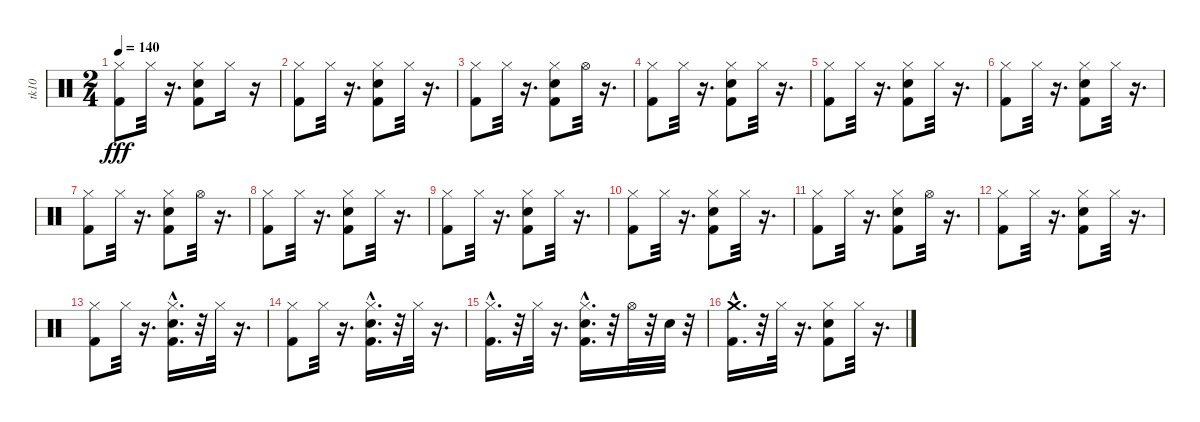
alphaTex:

\track ("tk10" "tk10") {instrument percussion}
\staff {score}
\articulation defaults
\ts (2 4)
\tempo 140
\clef neutral
\ks c
("Kick (hit) 2" "Hi-Hat (closed)").8{dy fff} "Hi-Hat (closed)".32 r.16{d} ("Hi-Hat (closed)" "Snare (hit) 2" "Kick (hit) 2").8 "Hi-Hat (closed)".16 r.16 |
("Kick (hit) 2" "Hi-Hat (closed)").8 "Hi-Hat (closed)".32 r.16{d} ("Snare (hit) 2" "Kick (hit) 2" "Hi-Hat (closed)").8 "Hi-Hat (closed)".32 r.16{d} |
("Kick (hit) 2" "Hi-Hat (closed)").8 "Hi-Hat (closed)".32 r.16{d} ("Kick (hit) 2" "Snare (hit) 2" "Hi-Hat (closed)").8 "Hi-Hat (open)".32 r.16{d} |
("Kick (hit) 2" "Hi-Hat (closed)").8 "Hi-Hat (closed)".32 r.16{d} ("Snare (hit) 2" "Kick (hit) 2" "Hi-Hat (closed)").8 "Hi-Hat (closed)".32 r.16{d} |
("Kick (hit) 2" "Hi-Hat (closed)").8 "Hi-Hat (closed)".32 r.16{d} ("Snare (hit) 2" "Kick (hit) 2" "Hi-Hat (closed)").8 "Hi-Hat (closed)".32 r.16{d} |
("Kick (hit) 2" "Hi-Hat (closed)").8 "Hi-Hat (closed)".32 r.16{d} ("Snare (hit) 2" "Kick (hit) 2" "Hi-Hat (closed)").8 "Hi-Hat (closed)".32 r.16{d} |
("Kick (hit) 2" "Hi-Hat (closed)").8 "Hi-Hat (closed)".32 r.16{d} ("Snare (hit) 2" "Kick (hit) 2" "Hi-Hat (closed)").8 "Hi-Hat (open)".32 r.16{d} |
("Kick (hit) 2" "Hi-Hat (closed)").8 "Hi-Hat (closed)".32 r.16{d} ("Snare (hit) 2" "Kick (hit) 2" "Hi-Hat (closed)").8 "Hi-Hat (closed)".32 r.16{d} |
("Kick (hit) 2" "Hi-Hat (closed)").8 "Hi-Hat (closed)".32 r.16{d} ("Snare (hit) 2" "Kick (hit) 2" "Hi-Hat (closed)").8 "Hi-Hat (closed)".32 r.16{d} |
("Kick (hit) 2" "Hi-Hat (closed)").8 "Hi-Hat (closed)".32 r.16{d} ("Kick (hit) 2" "Hi-Hat (closed)" "Snare (hit) 2").8 "Hi-Hat (closed)".32 r.16{d} |
("Kick (hit) 2" "Hi-Hat (closed)").8 "Hi-Hat (closed)".32 r.16{d} ("Snare (hit) 2" "Kick (hit) 2" "Hi-Hat (closed)").8 "Hi-Hat (open)".32 r.16{d} |
("Kick (hit) 2" "Hi-Hat (closed)").8 "Hi-Hat (closed)".32 r.16{d} ("Snare (hit) 2" "Kick (hit) 2" "Hi-Hat (closed)").8 "Hi-Hat (closed)".32 r.16{d} |
("Kick (hit) 2" "Hi-Hat (closed)").8 "Hi-Hat (closed)".32 r.16{d} ("Snare (hit) 2"{hac} "Kick (hit) 2"{hac} "Hi-Hat (closed)").16{d} r.32 "Hi-Hat (closed)".32 r.16{d} |
("Kick (hit) 2" "Hi-Hat (closed)").8 "Hi-Hat (closed)".32 r.16{d} ("Snare (hit) 2"{hac} "Kick (hit) 2"{hac} "Hi-Hat (closed)").16{d} r.32 "Hi-Hat (closed)".32 r.16{d} |
("Kick (hit) 2"{hac} "Hi-Hat (closed)").16{d} r.32 "Hi-Hat (closed)".32 r.16{d} ("Snare (hit) 2"{hac} "Kick (hit) 2"{hac} "Hi-Hat (closed)").16{d} r.32 "Hi-Hat (open)".32 r.32 "Snare (hit) 2".32 r.32 |
("Kick (hit) 2"{hac} "Crash medium (hit)").16{d} r.32 "Hi-Hat (closed)".32 r.16{d} ("Hi-Hat (closed)" "Kick (hit) 2" "Snare (hit) 2").8 "Hi-Hat (closed)".32 r.16{d}
